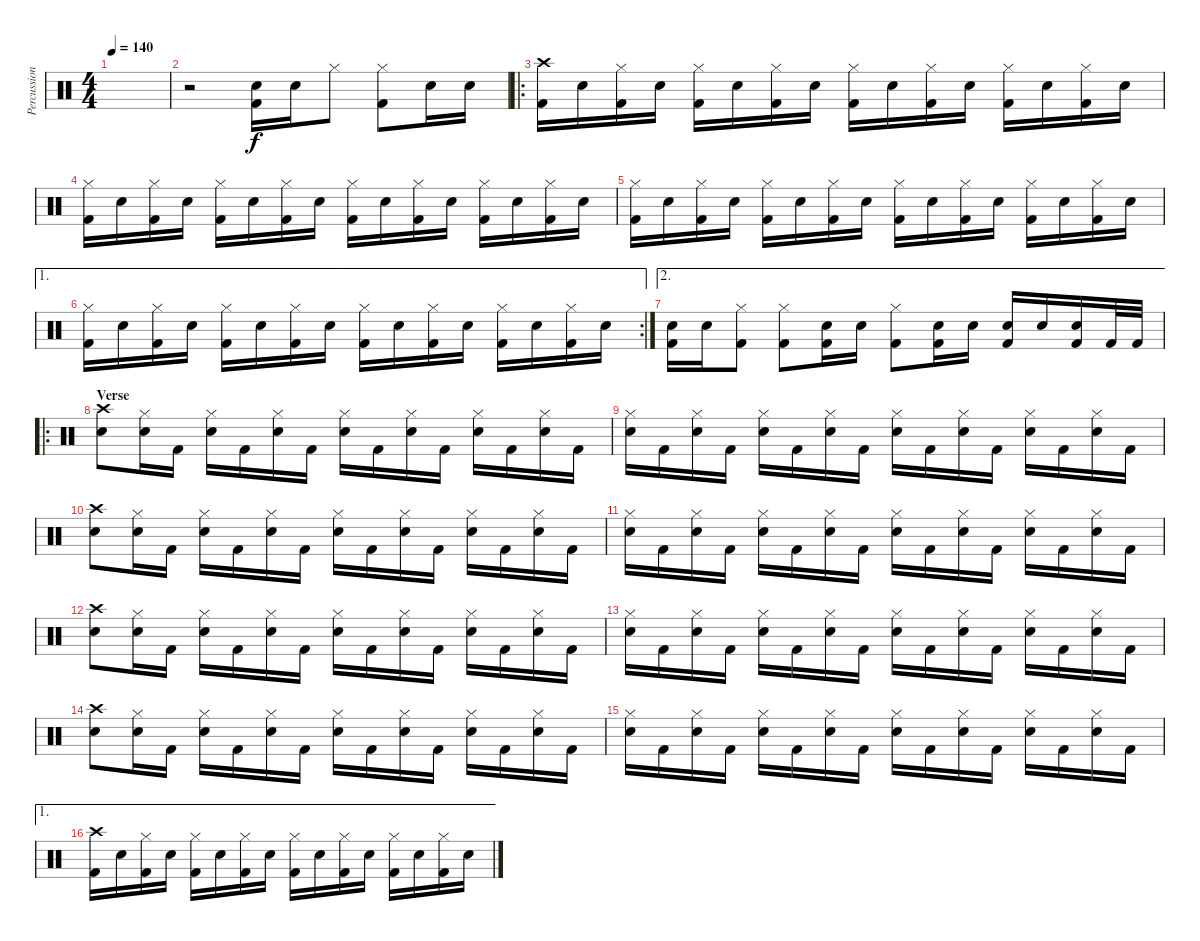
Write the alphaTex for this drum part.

\track ("Percussion" "Percussion") {instrument percussion}
\staff {score}
\articulation defaults
\ts (4 4)
\tempo 140
\clef neutral
\ks c
|
r.2 ("Snare (hit) 2" "Kick (hit) 2").16 "Snare (hit) 2".16 "Hi-Hat (closed)".8 ("Hi-Hat (closed)" "Kick (hit) 2").8 "Snare (hit) 2".16 "Snare (hit) 2".16 |
\ro
("Crash high (hit)" "Kick (hit) 2").16 "Snare (hit) 2".16 ("Hi-Hat (closed)" "Kick (hit) 2").16 "Snare (hit) 2".16 ("Hi-Hat (closed)" "Kick (hit) 2").16 "Snare (hit) 2".16 ("Hi-Hat (closed)" "Kick (hit) 2").16 "Snare (hit) 2".16 ("Hi-Hat (closed)" "Kick (hit) 2").16 "Snare (hit) 2".16 ("Hi-Hat (closed)" "Kick (hit) 2").16 "Snare (hit) 2".16 ("Hi-Hat (closed)" "Kick (hit) 2").16 "Snare (hit) 2".16 ("Hi-Hat (closed)" "Kick (hit) 2").16 "Snare (hit) 2".16 |
("Hi-Hat (closed)" "Kick (hit) 2").16 "Snare (hit) 2".16 ("Hi-Hat (closed)" "Kick (hit) 2").16 "Snare (hit) 2".16 ("Hi-Hat (closed)" "Kick (hit) 2").16 "Snare (hit) 2".16 ("Hi-Hat (closed)" "Kick (hit) 2").16 "Snare (hit) 2".16 ("Hi-Hat (closed)" "Kick (hit) 2").16 "Snare (hit) 2".16 ("Hi-Hat (closed)" "Kick (hit) 2").16 "Snare (hit) 2".16 ("Hi-Hat (closed)" "Kick (hit) 2").16 "Snare (hit) 2".16 ("Hi-Hat (closed)" "Kick (hit) 2").16 "Snare (hit) 2".16 |
("Hi-Hat (closed)" "Kick (hit) 2").16 "Snare (hit) 2".16 ("Hi-Hat (closed)" "Kick (hit) 2").16 "Snare (hit) 2".16 ("Hi-Hat (closed)" "Kick (hit) 2").16 "Snare (hit) 2".16 ("Hi-Hat (closed)" "Kick (hit) 2").16 "Snare (hit) 2".16 ("Hi-Hat (closed)" "Kick (hit) 2").16 "Snare (hit) 2".16 ("Hi-Hat (closed)" "Kick (hit) 2").16 "Snare (hit) 2".16 ("Hi-Hat (closed)" "Kick (hit) 2").16 "Snare (hit) 2".16 ("Hi-Hat (closed)" "Kick (hit) 2").16 "Snare (hit) 2".16 |
\ae 1
\rc 2
("Hi-Hat (closed)" "Kick (hit) 2").16 "Snare (hit) 2".16 ("Hi-Hat (closed)" "Kick (hit) 2").16 "Snare (hit) 2".16 ("Hi-Hat (closed)" "Kick (hit) 2").16 "Snare (hit) 2".16 ("Hi-Hat (closed)" "Kick (hit) 2").16 "Snare (hit) 2".16 ("Hi-Hat (closed)" "Kick (hit) 2").16 "Snare (hit) 2".16 ("Hi-Hat (closed)" "Kick (hit) 2").16 "Snare (hit) 2".16 ("Hi-Hat (closed)" "Kick (hit) 2").16 "Snare (hit) 2".16 ("Hi-Hat (closed)" "Kick (hit) 2").16 "Snare (hit) 2".16 |
\ae 2
("Snare (hit) 2" "Kick (hit) 2").16 "Snare (hit) 2".16 ("Hi-Hat (closed)" "Kick (hit) 2").8 ("Hi-Hat (closed)" "Kick (hit) 2").8 ("Kick (hit) 2" "Snare (hit) 2").16 "Snare (hit) 2".16 ("Hi-Hat (closed)" "Kick (hit) 2").8 ("Snare (hit) 2" "Kick (hit) 2").16 "Snare (hit) 2".16 ("Snare (hit) 2" "Kick (hit) 2").16 "Snare (hit) 2".16 ("Snare (hit) 2" "Kick (hit) 2").16 "Kick (hit) 2".32 "Kick (hit) 2".32 |
\ro
\section ("" "Verse")
("Crash high (hit)" "Snare (hit) 2").8 ("Hi-Hat (closed)" "Snare (hit) 2").16 "Kick (hit) 2".16 ("Snare (hit) 2" "Hi-Hat (closed)").16 "Kick (hit) 2".16 ("Snare (hit) 2" "Hi-Hat (closed)").16 "Kick (hit) 2".16 ("Snare (hit) 2" "Hi-Hat (closed)").16 "Kick (hit) 2".16 ("Snare (hit) 2" "Hi-Hat (closed)").16 "Kick (hit) 2".16 ("Snare (hit) 2" "Hi-Hat (closed)").16 "Kick (hit) 2".16 ("Snare (hit) 2" "Hi-Hat (closed)").16 "Kick (hit) 2".16 |
("Hi-Hat (closed)" "Snare (hit) 2").16 "Kick (hit) 2".16 ("Hi-Hat (closed)" "Snare (hit) 2").16 "Kick (hit) 2".16 ("Snare (hit) 2" "Hi-Hat (closed)").16 "Kick (hit) 2".16 ("Snare (hit) 2" "Hi-Hat (closed)").16 "Kick (hit) 2".16 ("Snare (hit) 2" "Hi-Hat (closed)").16 "Kick (hit) 2".16 ("Snare (hit) 2" "Hi-Hat (closed)").16 "Kick (hit) 2".16 ("Snare (hit) 2" "Hi-Hat (closed)").16 "Kick (hit) 2".16 ("Snare (hit) 2" "Hi-Hat (closed)").16 "Kick (hit) 2".16 |
("Crash high (hit)" "Snare (hit) 2").8 ("Hi-Hat (closed)" "Snare (hit) 2").16 "Kick (hit) 2".16 ("Snare (hit) 2" "Hi-Hat (closed)").16 "Kick (hit) 2".16 ("Snare (hit) 2" "Hi-Hat (closed)").16 "Kick (hit) 2".16 ("Snare (hit) 2" "Hi-Hat (closed)").16 "Kick (hit) 2".16 ("Snare (hit) 2" "Hi-Hat (closed)").16 "Kick (hit) 2".16 ("Snare (hit) 2" "Hi-Hat (closed)").16 "Kick (hit) 2".16 ("Snare (hit) 2" "Hi-Hat (closed)").16 "Kick (hit) 2".16 |
("Hi-Hat (closed)" "Snare (hit) 2").16 "Kick (hit) 2".16 ("Hi-Hat (closed)" "Snare (hit) 2").16 "Kick (hit) 2".16 ("Snare (hit) 2" "Hi-Hat (closed)").16 "Kick (hit) 2".16 ("Snare (hit) 2" "Hi-Hat (closed)").16 "Kick (hit) 2".16 ("Snare (hit) 2" "Hi-Hat (closed)").16 "Kick (hit) 2".16 ("Snare (hit) 2" "Hi-Hat (closed)").16 "Kick (hit) 2".16 ("Snare (hit) 2" "Hi-Hat (closed)").16 "Kick (hit) 2".16 ("Snare (hit) 2" "Hi-Hat (closed)").16 "Kick (hit) 2".16 |
("Crash high (hit)" "Snare (hit) 2").8 ("Hi-Hat (closed)" "Snare (hit) 2").16 "Kick (hit) 2".16 ("Snare (hit) 2" "Hi-Hat (closed)").16 "Kick (hit) 2".16 ("Snare (hit) 2" "Hi-Hat (closed)").16 "Kick (hit) 2".16 ("Snare (hit) 2" "Hi-Hat (closed)").16 "Kick (hit) 2".16 ("Snare (hit) 2" "Hi-Hat (closed)").16 "Kick (hit) 2".16 ("Snare (hit) 2" "Hi-Hat (closed)").16 "Kick (hit) 2".16 ("Snare (hit) 2" "Hi-Hat (closed)").16 "Kick (hit) 2".16 |
("Hi-Hat (closed)" "Snare (hit) 2").16 "Kick (hit) 2".16 ("Hi-Hat (closed)" "Snare (hit) 2").16 "Kick (hit) 2".16 ("Snare (hit) 2" "Hi-Hat (closed)").16 "Kick (hit) 2".16 ("Snare (hit) 2" "Hi-Hat (closed)").16 "Kick (hit) 2".16 ("Snare (hit) 2" "Hi-Hat (closed)").16 "Kick (hit) 2".16 ("Snare (hit) 2" "Hi-Hat (closed)").16 "Kick (hit) 2".16 ("Snare (hit) 2" "Hi-Hat (closed)").16 "Kick (hit) 2".16 ("Snare (hit) 2" "Hi-Hat (closed)").16 "Kick (hit) 2".16 |
("Crash high (hit)" "Snare (hit) 2").8 ("Hi-Hat (closed)" "Snare (hit) 2").16 "Kick (hit) 2".16 ("Snare (hit) 2" "Hi-Hat (closed)").16 "Kick (hit) 2".16 ("Snare (hit) 2" "Hi-Hat (closed)").16 "Kick (hit) 2".16 ("Snare (hit) 2" "Hi-Hat (closed)").16 "Kick (hit) 2".16 ("Snare (hit) 2" "Hi-Hat (closed)").16 "Kick (hit) 2".16 ("Snare (hit) 2" "Hi-Hat (closed)").16 "Kick (hit) 2".16 ("Snare (hit) 2" "Hi-Hat (closed)").16 "Kick (hit) 2".16 |
("Hi-Hat (closed)" "Snare (hit) 2").16 "Kick (hit) 2".16 ("Hi-Hat (closed)" "Snare (hit) 2").16 "Kick (hit) 2".16 ("Snare (hit) 2" "Hi-Hat (closed)").16 "Kick (hit) 2".16 ("Snare (hit) 2" "Hi-Hat (closed)").16 "Kick (hit) 2".16 ("Snare (hit) 2" "Hi-Hat (closed)").16 "Kick (hit) 2".16 ("Snare (hit) 2" "Hi-Hat (closed)").16 "Kick (hit) 2".16 ("Snare (hit) 2" "Hi-Hat (closed)").16 "Kick (hit) 2".16 ("Snare (hit) 2" "Hi-Hat (closed)").16 "Kick (hit) 2".16 |
\ae 1
("Crash high (hit)" "Kick (hit) 2").16 "Snare (hit) 2".16 ("Hi-Hat (closed)" "Kick (hit) 2").16 "Snare (hit) 2".16 ("Hi-Hat (closed)" "Kick (hit) 2").16 "Snare (hit) 2".16 ("Hi-Hat (closed)" "Kick (hit) 2").16 "Snare (hit) 2".16 ("Hi-Hat (closed)" "Kick (hit) 2").16 "Snare (hit) 2".16 ("Hi-Hat (closed)" "Kick (hit) 2").16 "Snare (hit) 2".16 ("Hi-Hat (closed)" "Kick (hit) 2").16 "Snare (hit) 2".16 ("Hi-Hat (closed)" "Kick (hit) 2").16 "Snare (hit) 2".16
